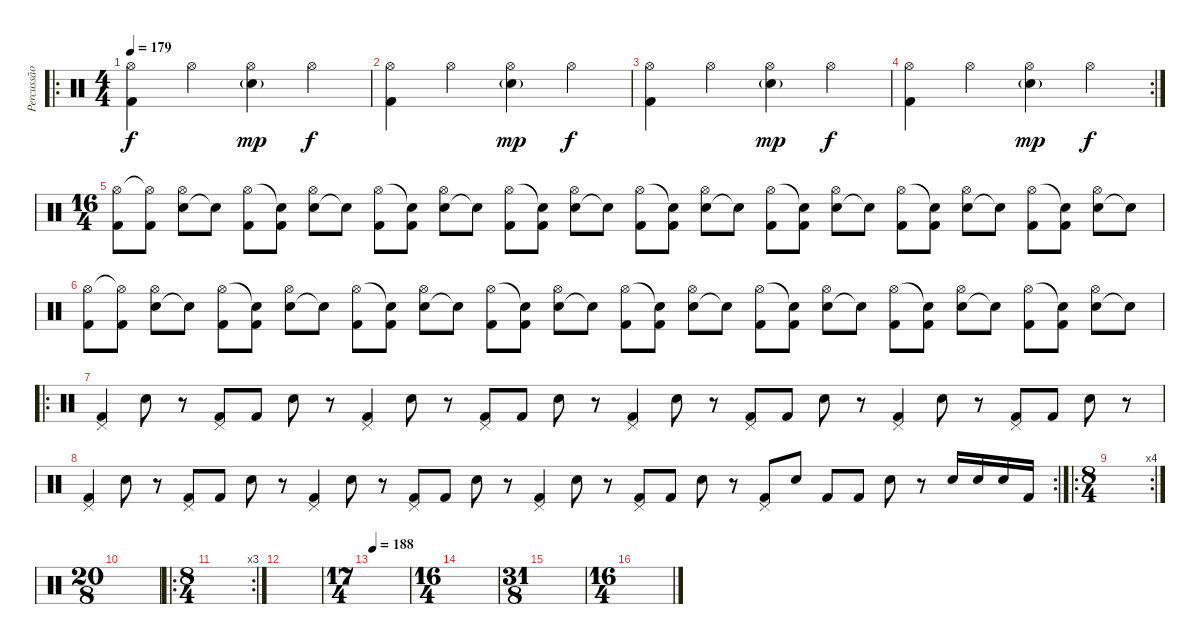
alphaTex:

\track ("Percussão" "Percussão") {instrument percussion}
\staff {score}
\articulation defaults
\ro
\ts (4 4)
\tempo 179
\clef neutral
\ks c
("Kick (hit) 2" "Hi-Hat (open)").4{dy f} "Hi-Hat (open)".4 ("Electric Snare (hit)"{g} "Hi-Hat (open)").4{dy mp} "Hi-Hat (open)".4{dy f} |
("Kick (hit) 2" "Hi-Hat (open)").4 "Hi-Hat (open)".4 ("Electric Snare (hit)"{g} "Hi-Hat (open)").4{dy mp} "Hi-Hat (open)".4{dy f} |
("Kick (hit) 2" "Hi-Hat (open)").4 "Hi-Hat (open)".4 ("Electric Snare (hit)"{g} "Hi-Hat (open)").4{dy mp} "Hi-Hat (open)".4{dy f} |
\rc 2
("Kick (hit) 2" "Hi-Hat (open)").4 "Hi-Hat (open)".4 ("Electric Snare (hit)"{g} "Hi-Hat (open)").4{dy mp} "Hi-Hat (open)".4{dy f} |
\ts (16 4)
("Kick (hit) 2" "Hi-Hat (open)").8 ("Kick (hit) 2" "Hi-Hat (open)"{t}).8 ("Snare (hit) 2" "Hi-Hat (open)").8 "Snare (hit)"{t}.8 ("Kick (hit) 2" "Hi-Hat (open)").8 ("Kick (hit) 2" "Snare (hit)"{t}).8 ("Snare (hit) 2" "Hi-Hat (open)").8 "Snare (hit)"{t}.8 ("Kick (hit) 2" "Hi-Hat (open)").8 ("Kick (hit) 2" "Snare (hit)"{t}).8 ("Snare (hit) 2" "Hi-Hat (open)").8 "Snare (hit)"{t}.8 ("Kick (hit) 2" "Hi-Hat (open)").8 ("Kick (hit) 2" "Snare (hit)"{t}).8 ("Snare (hit) 2" "Hi-Hat (open)").8 "Snare (hit)"{t}.8 ("Kick (hit) 2" "Hi-Hat (open)").8 ("Kick (hit) 2" "Snare (hit)"{t}).8 ("Snare (hit) 2" "Hi-Hat (open)").8 "Snare (hit)"{t}.8 ("Kick (hit) 2" "Hi-Hat (open)").8 ("Kick (hit) 2" "Snare (hit)"{t}).8 ("Snare (hit) 2" "Hi-Hat (open)").8 "Snare (hit)"{t}.8 ("Kick (hit) 2" "Hi-Hat (open)").8 ("Kick (hit) 2" "Snare (hit)"{t}).8 ("Snare (hit) 2" "Hi-Hat (open)").8 "Snare (hit)"{t}.8 ("Kick (hit) 2" "Hi-Hat (open)").8 ("Kick (hit) 2" "Snare (hit)"{t}).8 ("Snare (hit) 2" "Hi-Hat (open)").8 "Snare (hit)"{t}.8 |
("Kick (hit) 2" "Hi-Hat (open)").8 ("Kick (hit) 2" "Hi-Hat (open)"{t}).8 ("Snare (hit) 2" "Hi-Hat (open)").8 "Snare (hit)"{t}.8 ("Kick (hit) 2" "Hi-Hat (open)").8 ("Kick (hit) 2" "Snare (hit)"{t}).8 ("Snare (hit) 2" "Hi-Hat (open)").8 "Snare (hit)"{t}.8 ("Kick (hit) 2" "Hi-Hat (open)").8 ("Kick (hit) 2" "Snare (hit)"{t}).8 ("Snare (hit) 2" "Hi-Hat (open)").8 "Snare (hit)"{t}.8 ("Kick (hit) 2" "Hi-Hat (open)").8 ("Kick (hit) 2" "Snare (hit)"{t}).8 ("Snare (hit) 2" "Hi-Hat (open)").8 "Snare (hit)"{t}.8 ("Kick (hit) 2" "Hi-Hat (open)").8 ("Kick (hit) 2" "Snare (hit)"{t}).8 ("Snare (hit) 2" "Hi-Hat (open)").8 "Snare (hit)"{t}.8 ("Kick (hit) 2" "Hi-Hat (open)").8 ("Kick (hit) 2" "Snare (hit)"{t}).8 ("Snare (hit) 2" "Hi-Hat (open)").8 "Snare (hit)"{t}.8 ("Kick (hit) 2" "Hi-Hat (open)").8 ("Kick (hit) 2" "Snare (hit)"{t}).8 ("Snare (hit) 2" "Hi-Hat (open)").8 "Snare (hit)"{t}.8 ("Kick (hit) 2" "Hi-Hat (open)").8 ("Kick (hit) 2" "Snare (hit)"{t}).8 ("Snare (hit) 2" "Hi-Hat (open)").8 "Snare (hit)"{t}.8 |
\ro
("Kick (hit) 2" "Pedal Hi-Hat (hit)").4 "Snare (hit) 2".8 r.8 ("Kick (hit) 2" "Pedal Hi-Hat (hit)").8 "Kick (hit) 2".8 "Snare (hit) 2".8 r.8 ("Kick (hit) 2" "Pedal Hi-Hat (hit)").4 "Snare (hit) 2".8 r.8 ("Kick (hit) 2" "Pedal Hi-Hat (hit)").8 "Kick (hit) 2".8 "Snare (hit) 2".8 r.8 ("Kick (hit) 2" "Pedal Hi-Hat (hit)").4 "Snare (hit) 2".8 r.8 ("Kick (hit) 2" "Pedal Hi-Hat (hit)").8 "Kick (hit) 2".8 "Snare (hit) 2".8 r.8 ("Kick (hit) 2" "Pedal Hi-Hat (hit)").4 "Snare (hit) 2".8 r.8 ("Kick (hit) 2" "Pedal Hi-Hat (hit)").8 "Kick (hit) 2".8 "Snare (hit) 2".8 r.8 |
\rc 2
("Kick (hit) 2" "Pedal Hi-Hat (hit)").4 "Snare (hit) 2".8 r.8 ("Kick (hit) 2" "Pedal Hi-Hat (hit)").8 "Kick (hit) 2".8 "Snare (hit) 2".8 r.8 ("Kick (hit) 2" "Pedal Hi-Hat (hit)").4 "Snare (hit) 2".8 r.8 ("Kick (hit) 2" "Pedal Hi-Hat (hit)").8 "Kick (hit) 2".8 "Snare (hit) 2".8 r.8 ("Kick (hit) 2" "Pedal Hi-Hat (hit)").4 "Snare (hit) 2".8 r.8 ("Kick (hit) 2" "Pedal Hi-Hat (hit)").8 "Kick (hit) 2".8 "Snare (hit) 2".8 r.8 ("Kick (hit) 2" "Pedal Hi-Hat (hit)").8 "Snare (hit) 2".8 "Kick (hit) 2".8 "Kick (hit) 2".8 "Snare (hit) 2".8 r.8 "Snare (hit) 2".16 "Snare (hit) 2".16 "Snare (hit) 2".16 "Kick (hit) 2".16 |
\ro
\rc 4
\ts (8 4)
|
\ts (20 8)
|
\ro
\rc 3
\ts (8 4)
|
|
\ts (17 4)
\tempo 186
\tempo 188
|
\ts (16 4)
|
\ts (31 8)
|
\ts (16 4)
